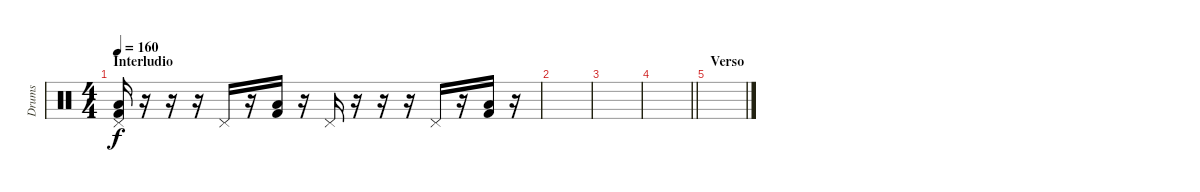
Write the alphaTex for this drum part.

\track ("Drums" "Drums") {instrument percussion}
\staff {score}
\articulation defaults
\ts (4 4)
\section ("" "Interludio")
\tempo 160
\clef neutral
\ks c
("Pedal Hi-Hat (hit)" "Low Floor Tom (hit)" "Kick (hit) 2").16{dy f volume 16} r.16 r.16 r.16 "Pedal Hi-Hat (hit)".16 r.16 ("Low Floor Tom (hit)" "Kick (hit) 2").16 r.16 "Pedal Hi-Hat (hit)".16 r.16 r.16 r.16 "Pedal Hi-Hat (hit)".16 r.16 ("Low Floor Tom (hit)" "Kick (hit) 2").16 r.16 |
|
|
\barLineRight lightlight
|
\section ("" "Verso ")
